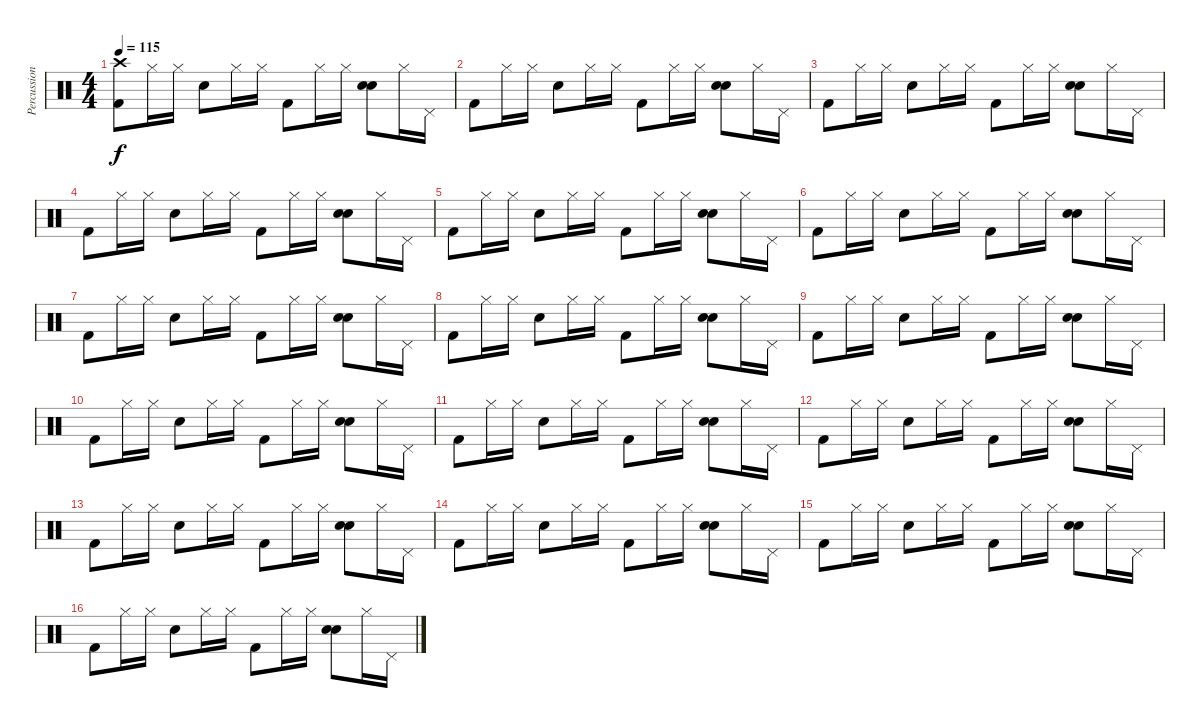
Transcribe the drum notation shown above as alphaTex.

\track ("Percussions" "Percussion") {instrument percussion}
\staff {score}
\articulation defaults
\ts (4 4)
\tempo 115
\clef neutral
\ks c
("Kick (hit) 2" "Crash high (hit)").8{dy f} "Hi-Hat (closed)".16 "Hi-Hat (closed)".16 "Electric Snare (hit)".8 "Hi-Hat (closed)".16 "Hi-Hat (closed)".16 "Kick (hit) 2".8 "Hi-Hat (closed)".16 "Hi-Hat (closed)".16 ("Hand Clap (hit)" "Electric Snare (hit)").8 "Hi-Hat (closed)".16 "Pedal Hi-Hat (hit)".16 |
"Kick (hit) 2".8 "Hi-Hat (closed)".16 "Hi-Hat (closed)".16 "Electric Snare (hit)".8 "Hi-Hat (closed)".16 "Hi-Hat (closed)".16 "Kick (hit) 2".8 "Hi-Hat (closed)".16 "Hi-Hat (closed)".16 ("Hand Clap (hit)" "Electric Snare (hit)").8 "Hi-Hat (closed)".16 "Pedal Hi-Hat (hit)".16 |
"Kick (hit) 2".8 "Hi-Hat (closed)".16 "Hi-Hat (closed)".16 "Electric Snare (hit)".8 "Hi-Hat (closed)".16 "Hi-Hat (closed)".16 "Kick (hit) 2".8 "Hi-Hat (closed)".16 "Hi-Hat (closed)".16 ("Hand Clap (hit)" "Electric Snare (hit)").8 "Hi-Hat (closed)".16 "Pedal Hi-Hat (hit)".16 |
"Kick (hit) 2".8 "Hi-Hat (closed)".16 "Hi-Hat (closed)".16 "Electric Snare (hit)".8 "Hi-Hat (closed)".16 "Hi-Hat (closed)".16 "Kick (hit) 2".8 "Hi-Hat (closed)".16 "Hi-Hat (closed)".16 ("Hand Clap (hit)" "Electric Snare (hit)").8 "Hi-Hat (closed)".16 "Pedal Hi-Hat (hit)".16 |
"Kick (hit) 2".8 "Hi-Hat (closed)".16 "Hi-Hat (closed)".16 "Electric Snare (hit)".8 "Hi-Hat (closed)".16 "Hi-Hat (closed)".16 "Kick (hit) 2".8 "Hi-Hat (closed)".16 "Hi-Hat (closed)".16 ("Hand Clap (hit)" "Electric Snare (hit)").8 "Hi-Hat (closed)".16 "Pedal Hi-Hat (hit)".16 |
"Kick (hit) 2".8 "Hi-Hat (closed)".16 "Hi-Hat (closed)".16 "Electric Snare (hit)".8 "Hi-Hat (closed)".16 "Hi-Hat (closed)".16 "Kick (hit) 2".8 "Hi-Hat (closed)".16 "Hi-Hat (closed)".16 ("Hand Clap (hit)" "Electric Snare (hit)").8 "Hi-Hat (closed)".16 "Pedal Hi-Hat (hit)".16 |
"Kick (hit) 2".8 "Hi-Hat (closed)".16 "Hi-Hat (closed)".16 "Electric Snare (hit)".8 "Hi-Hat (closed)".16 "Hi-Hat (closed)".16 "Kick (hit) 2".8 "Hi-Hat (closed)".16 "Hi-Hat (closed)".16 ("Hand Clap (hit)" "Electric Snare (hit)").8 "Hi-Hat (closed)".16 "Pedal Hi-Hat (hit)".16 |
"Kick (hit) 2".8 "Hi-Hat (closed)".16 "Hi-Hat (closed)".16 "Electric Snare (hit)".8 "Hi-Hat (closed)".16 "Hi-Hat (closed)".16 "Kick (hit) 2".8 "Hi-Hat (closed)".16 "Hi-Hat (closed)".16 ("Hand Clap (hit)" "Electric Snare (hit)").8 "Hi-Hat (closed)".16 "Pedal Hi-Hat (hit)".16 |
"Kick (hit) 2".8 "Hi-Hat (closed)".16 "Hi-Hat (closed)".16 "Electric Snare (hit)".8 "Hi-Hat (closed)".16 "Hi-Hat (closed)".16 "Kick (hit) 2".8 "Hi-Hat (closed)".16 "Hi-Hat (closed)".16 ("Hand Clap (hit)" "Electric Snare (hit)").8 "Hi-Hat (closed)".16 "Pedal Hi-Hat (hit)".16 |
"Kick (hit) 2".8 "Hi-Hat (closed)".16 "Hi-Hat (closed)".16 "Electric Snare (hit)".8 "Hi-Hat (closed)".16 "Hi-Hat (closed)".16 "Kick (hit) 2".8 "Hi-Hat (closed)".16 "Hi-Hat (closed)".16 ("Hand Clap (hit)" "Electric Snare (hit)").8 "Hi-Hat (closed)".16 "Pedal Hi-Hat (hit)".16 |
"Kick (hit) 2".8 "Hi-Hat (closed)".16 "Hi-Hat (closed)".16 "Electric Snare (hit)".8 "Hi-Hat (closed)".16 "Hi-Hat (closed)".16 "Kick (hit) 2".8 "Hi-Hat (closed)".16 "Hi-Hat (closed)".16 ("Hand Clap (hit)" "Electric Snare (hit)").8 "Hi-Hat (closed)".16 "Pedal Hi-Hat (hit)".16 |
"Kick (hit) 2".8 "Hi-Hat (closed)".16 "Hi-Hat (closed)".16 "Electric Snare (hit)".8 "Hi-Hat (closed)".16 "Hi-Hat (closed)".16 "Kick (hit) 2".8 "Hi-Hat (closed)".16 "Hi-Hat (closed)".16 ("Hand Clap (hit)" "Electric Snare (hit)").8 "Hi-Hat (closed)".16 "Pedal Hi-Hat (hit)".16 |
"Kick (hit) 2".8 "Hi-Hat (closed)".16 "Hi-Hat (closed)".16 "Electric Snare (hit)".8 "Hi-Hat (closed)".16 "Hi-Hat (closed)".16 "Kick (hit) 2".8 "Hi-Hat (closed)".16 "Hi-Hat (closed)".16 ("Hand Clap (hit)" "Electric Snare (hit)").8 "Hi-Hat (closed)".16 "Pedal Hi-Hat (hit)".16 |
"Kick (hit) 2".8 "Hi-Hat (closed)".16 "Hi-Hat (closed)".16 "Electric Snare (hit)".8 "Hi-Hat (closed)".16 "Hi-Hat (closed)".16 "Kick (hit) 2".8 "Hi-Hat (closed)".16 "Hi-Hat (closed)".16 ("Hand Clap (hit)" "Electric Snare (hit)").8 "Hi-Hat (closed)".16 "Pedal Hi-Hat (hit)".16 |
"Kick (hit) 2".8 "Hi-Hat (closed)".16 "Hi-Hat (closed)".16 "Electric Snare (hit)".8 "Hi-Hat (closed)".16 "Hi-Hat (closed)".16 "Kick (hit) 2".8 "Hi-Hat (closed)".16 "Hi-Hat (closed)".16 ("Hand Clap (hit)" "Electric Snare (hit)").8 "Hi-Hat (closed)".16 "Pedal Hi-Hat (hit)".16 |
"Kick (hit) 2".8 "Hi-Hat (closed)".16 "Hi-Hat (closed)".16 "Electric Snare (hit)".8 "Hi-Hat (closed)".16 "Hi-Hat (closed)".16 "Kick (hit) 2".8 "Hi-Hat (closed)".16 "Hi-Hat (closed)".16 ("Hand Clap (hit)" "Electric Snare (hit)").8 "Hi-Hat (closed)".16 "Pedal Hi-Hat (hit)".16
